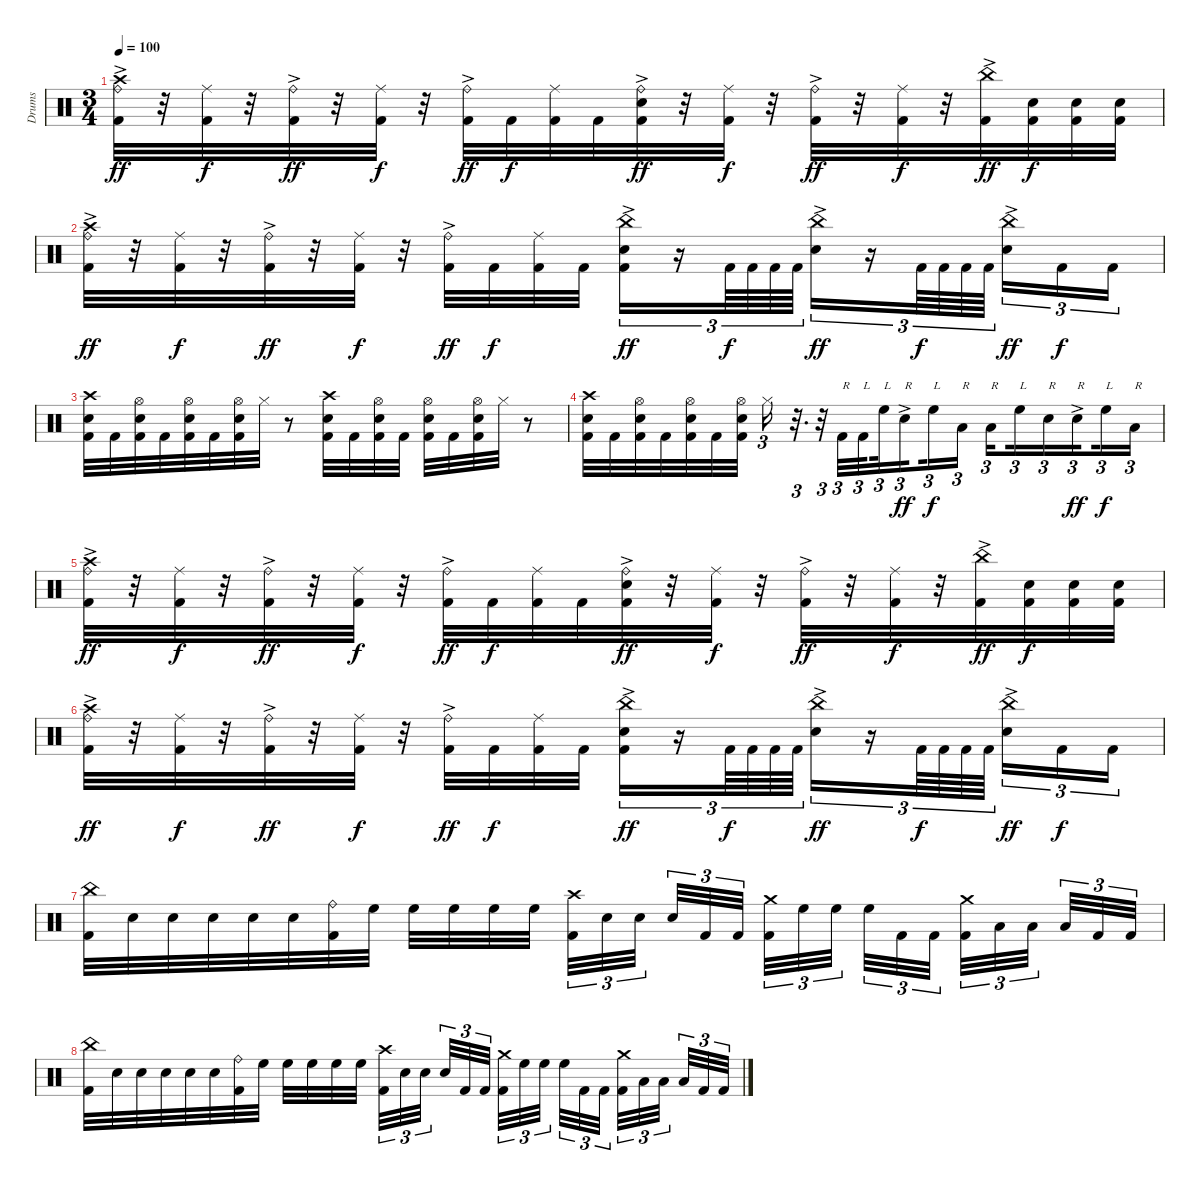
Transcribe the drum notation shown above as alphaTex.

\track ("Drums" "Drums") {instrument percussion}
\staff {score}
\articulation defaults
\ts (3 4)
\tempo 100
\clef neutral
\ks c
("Ride (bell)"{ac} "Kick (hit) 2" "Crash high (hit)").32{dy ff} r.32 ("Ride (middle)" "Kick (hit) 2").32{dy f} r.32 ("Ride (bell)"{ac} "Kick (hit) 2").32{dy ff} r.32 ("Ride (middle)" "Kick (hit) 2").32{dy f} r.32 ("Ride (bell)"{ac} "Kick (hit) 2").32{dy ff} "Kick (hit) 2".32{dy f} ("Ride (middle)" "Kick (hit) 2").32 "Kick (hit) 2".32 ("Ride (bell)"{ac} "Kick (hit) 2" "Electric Snare (hit)").32{dy ff} r.32 ("Ride (middle)" "Kick (hit) 2").32{dy f} r.32 ("Ride (bell)"{ac} "Kick (hit) 2").32{dy ff} r.32 ("Ride (middle)" "Kick (hit) 2").32{dy f} r.32 ("China (hit)"{ac} "Kick (hit) 2").32{dy ff} ("Kick (hit) 2" "Electric Snare (hit)").32{dy f} ("Kick (hit) 2" "Electric Snare (hit)").32 ("Kick (hit) 2" "Electric Snare (hit)").32 |
("Ride (bell)"{ac} "Kick (hit) 2" "Crash high (hit)").32{dy ff} r.32 ("Ride (middle)" "Kick (hit) 2").32{dy f} r.32 ("Ride (bell)"{ac} "Kick (hit) 2").32{dy ff} r.32 ("Ride (middle)" "Kick (hit) 2").32{dy f} r.32 ("Ride (bell)"{ac} "Kick (hit) 2").32{dy ff} "Kick (hit) 2".32{dy f} ("Ride (middle)" "Kick (hit) 2").32 "Kick (hit) 2".32{beam splitsecondary} ("China (hit)" "Kick (hit) 2" "Electric Snare (hit)"{ac}).16{tu (3 2) dy ff} r.16{tu (3 2)} "Kick (hit) 2".64{tu (3 2) dy f} "Kick (hit) 2".64{tu (3 2)} "Kick (hit) 2".64{tu (3 2)} "Kick (hit) 2".64{tu (3 2)} ("China (hit)" "Electric Snare (hit)"{ac}).16{tu (3 2) dy ff} r.16{tu (3 2)} "Kick (hit) 2".64{tu (3 2) dy f} "Kick (hit) 2".64{tu (3 2)} "Kick (hit) 2".64{tu (3 2)} "Kick (hit) 2".64{tu (3 2) beam splitsecondary} ("China (hit)" "Electric Snare (hit)"{ac}).16{tu (3 2) dy ff} "Kick (hit) 2".16{tu (3 2) dy f} "Kick (hit) 2".16{tu (3 2)} |
("Crash high (hit)" "Electric Snare (hit)" "Kick (hit) 2").32 "Kick (hit) 2".32 ("Kick (hit) 2" "Electric Snare (hit)" "Hi-Hat (open)").32 "Kick (hit) 2".32 ("Hi-Hat (open)" "Electric Snare (hit)" "Kick (hit) 2").32 "Kick (hit) 2".32 ("Hi-Hat (open)" "Electric Snare (hit)" "Kick (hit) 2").32 "Hi-Hat (closed)".32 r.8 ("Crash high (hit)" "Electric Snare (hit)" "Kick (hit) 2").32 "Kick (hit) 2".32 ("Kick (hit) 2" "Electric Snare (hit)" "Hi-Hat (open)").32 "Kick (hit) 2".32 ("Hi-Hat (open)" "Electric Snare (hit)" "Kick (hit) 2").32 "Kick (hit) 2".32 ("Hi-Hat (open)" "Electric Snare (hit)" "Kick (hit) 2").32 "Hi-Hat (closed)".32 r.8 |
("Crash high (hit)" "Electric Snare (hit)" "Kick (hit) 2").32 "Kick (hit) 2".32 ("Kick (hit) 2" "Electric Snare (hit)" "Hi-Hat (open)").32 "Kick (hit) 2".32 ("Hi-Hat (open)" "Electric Snare (hit)" "Kick (hit) 2").32 "Kick (hit) 2".32 ("Hi-Hat (open)" "Electric Snare (hit)" "Kick (hit) 2").32{beam splitsecondary} "Hi-Hat (closed)".16{tu (3 2)} r.32{d tu (3 2)} r.32{tu (3 2)} "Kick (hit) 2".32{tu (3 2) txt "R"} "Kick (hit) 2".32{tu (3 2) txt "L" beam splitsecondary} "High Floor Tom (hit)".32{tu (3 2) txt "L"} "Electric Snare (hit)"{ac}.16{tu (3 2) txt "R" dy ff beam splitsecondary} "High Floor Tom (hit)".16{tu (3 2) txt "L" dy f} "Low Tom (hit)".16{tu (3 2) txt "R"} "Low Tom (hit)".16{tu (3 2) txt "R" beam splitsecondary} "High Floor Tom (hit)".16{tu (3 2) txt "L"} "Electric Snare (hit)".16{tu (3 2) txt "R"} "Electric Snare (hit)"{ac}.16{tu (3 2) txt "R" dy ff beam splitsecondary} "High Floor Tom (hit)".16{tu (3 2) txt "L" dy f} "Low Tom (hit)".16{tu (3 2) txt "R"} |
("Ride (bell)"{ac} "Kick (hit) 2" "Crash high (hit)").32{dy ff} r.32 ("Ride (middle)" "Kick (hit) 2").32{dy f} r.32 ("Ride (bell)"{ac} "Kick (hit) 2").32{dy ff} r.32 ("Ride (middle)" "Kick (hit) 2").32{dy f} r.32 ("Ride (bell)"{ac} "Kick (hit) 2").32{dy ff} "Kick (hit) 2".32{dy f} ("Ride (middle)" "Kick (hit) 2").32 "Kick (hit) 2".32 ("Ride (bell)"{ac} "Kick (hit) 2" "Electric Snare (hit)").32{dy ff} r.32 ("Ride (middle)" "Kick (hit) 2").32{dy f} r.32 ("Ride (bell)"{ac} "Kick (hit) 2").32{dy ff} r.32 ("Ride (middle)" "Kick (hit) 2").32{dy f} r.32 ("China (hit)"{ac} "Kick (hit) 2").32{dy ff} ("Kick (hit) 2" "Electric Snare (hit)").32{dy f} ("Kick (hit) 2" "Electric Snare (hit)").32 ("Kick (hit) 2" "Electric Snare (hit)").32 |
("Ride (bell)"{ac} "Kick (hit) 2" "Crash high (hit)").32{dy ff} r.32 ("Ride (middle)" "Kick (hit) 2").32{dy f} r.32 ("Ride (bell)"{ac} "Kick (hit) 2").32{dy ff} r.32 ("Ride (middle)" "Kick (hit) 2").32{dy f} r.32 ("Ride (bell)"{ac} "Kick (hit) 2").32{dy ff} "Kick (hit) 2".32{dy f} ("Ride (middle)" "Kick (hit) 2").32 "Kick (hit) 2".32{beam splitsecondary} ("China (hit)" "Kick (hit) 2" "Electric Snare (hit)"{ac}).16{tu (3 2) dy ff} r.16{tu (3 2)} "Kick (hit) 2".64{tu (3 2) dy f} "Kick (hit) 2".64{tu (3 2)} "Kick (hit) 2".64{tu (3 2)} "Kick (hit) 2".64{tu (3 2)} ("China (hit)" "Electric Snare (hit)"{ac}).16{tu (3 2) dy ff} r.16{tu (3 2)} "Kick (hit) 2".64{tu (3 2) dy f} "Kick (hit) 2".64{tu (3 2)} "Kick (hit) 2".64{tu (3 2)} "Kick (hit) 2".64{tu (3 2) beam splitsecondary} ("China (hit)" "Electric Snare (hit)"{ac}).16{tu (3 2) dy ff} "Kick (hit) 2".16{tu (3 2) dy f} "Kick (hit) 2".16{tu (3 2)} |
("China (hit)" "Kick (hit) 2").32 "Electric Snare (hit)".32 "Electric Snare (hit)".32 "Electric Snare (hit)".32 "Electric Snare (hit)".32 "Electric Snare (hit)".32 ("Ride (bell)" "Kick (hit) 2").32 "High Floor Tom (hit)".32 "High Floor Tom (hit)".32 "High Floor Tom (hit)".32 "High Floor Tom (hit)".32 "High Floor Tom (hit)".32{beam splitsecondary} ("Crash high (hit)" "Kick (hit) 2").32{tu (3 2)} "Electric Snare (hit)".32{tu (3 2)} "Electric Snare (hit)".32{tu (3 2) beam splitsecondary} "Electric Snare (hit)".32{tu (3 2)} "Kick (hit) 2".32{tu (3 2)} "Kick (hit) 2".32{tu (3 2)} ("Crash medium (hit)" "Kick (hit) 2").32{tu (3 2)} "High Floor Tom (hit)".32{tu (3 2)} "High Floor Tom (hit)".32{tu (3 2) beam splitsecondary} "High Floor Tom (hit)".32{tu (3 2)} "Kick (hit) 2".32{tu (3 2)} "Kick (hit) 2".32{tu (3 2) beam splitsecondary} ("Crash medium (hit)" "Kick (hit) 2").32{tu (3 2)} "Low Tom (hit)".32{tu (3 2)} "Low Tom (hit)".32{tu (3 2) beam splitsecondary} "Low Tom (hit)".32{tu (3 2)} "Kick (hit) 2".32{tu (3 2)} "Kick (hit) 2".32{tu (3 2)} |
("China (hit)" "Kick (hit) 2").32 "Electric Snare (hit)".32 "Electric Snare (hit)".32 "Electric Snare (hit)".32 "Electric Snare (hit)".32 "Electric Snare (hit)".32 ("Ride (bell)" "Kick (hit) 2").32 "High Floor Tom (hit)".32 "High Floor Tom (hit)".32 "High Floor Tom (hit)".32 "High Floor Tom (hit)".32 "High Floor Tom (hit)".32{beam splitsecondary} ("Crash high (hit)" "Kick (hit) 2").32{tu (3 2)} "Electric Snare (hit)".32{tu (3 2)} "Electric Snare (hit)".32{tu (3 2) beam splitsecondary} "Electric Snare (hit)".32{tu (3 2)} "Kick (hit) 2".32{tu (3 2)} "Kick (hit) 2".32{tu (3 2)} ("Crash medium (hit)" "Kick (hit) 2").32{tu (3 2)} "High Floor Tom (hit)".32{tu (3 2)} "High Floor Tom (hit)".32{tu (3 2) beam splitsecondary} "High Floor Tom (hit)".32{tu (3 2)} "Kick (hit) 2".32{tu (3 2)} "Kick (hit) 2".32{tu (3 2) beam splitsecondary} ("Crash medium (hit)" "Kick (hit) 2").32{tu (3 2)} "Low Tom (hit)".32{tu (3 2)} "Low Tom (hit)".32{tu (3 2) beam splitsecondary} "Low Tom (hit)".32{tu (3 2)} "Kick (hit) 2".32{tu (3 2)} "Kick (hit) 2".32{tu (3 2)}
